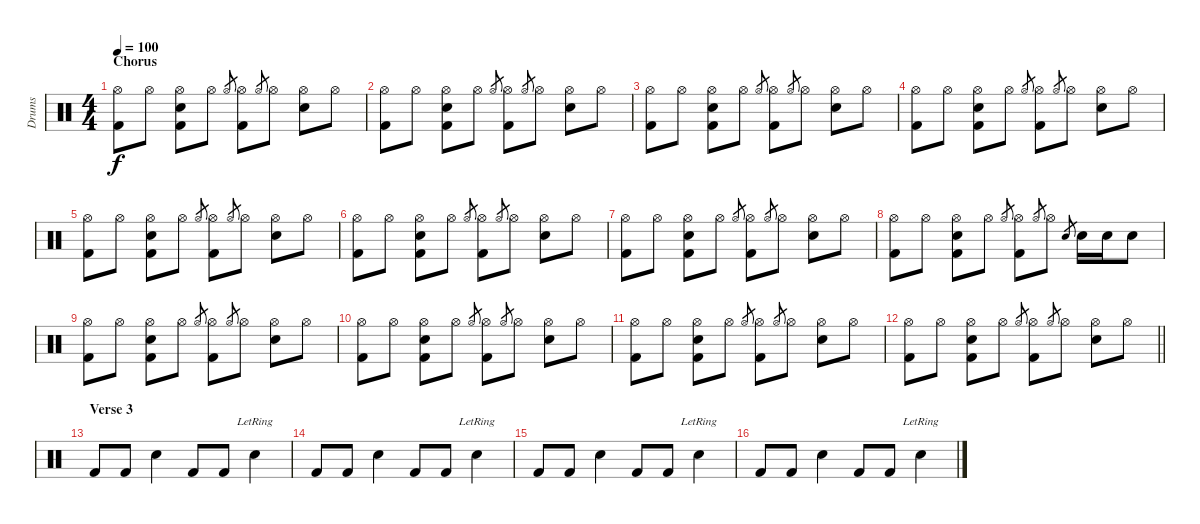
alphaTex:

\track ("Drums" "Drums") {instrument percussion}
\staff {score}
\articulation defaults
\ts (4 4)
\section ("" "Chorus")
\tempo 100
\clef neutral
\ks c
("Hi-Hat (open)" "Kick (hit) 2").8{dy f} "Hi-Hat (open)".8 ("Electric Snare (hit)" "Hi-Hat (open)" "Kick (hit) 2").8 "Hi-Hat (open)".8 "Hi-Hat (open)".8{gr} ("Hi-Hat (open)" "Kick (hit) 2").8 "Hi-Hat (open)".8{gr} "Hi-Hat (open)".8 ("Electric Snare (hit)" "Hi-Hat (open)").8 "Hi-Hat (open)".8 |
("Hi-Hat (open)" "Kick (hit) 2").8 "Hi-Hat (open)".8 ("Electric Snare (hit)" "Hi-Hat (open)" "Kick (hit) 2").8 "Hi-Hat (open)".8 "Hi-Hat (open)".8{gr} ("Hi-Hat (open)" "Kick (hit) 2").8 "Hi-Hat (open)".8{gr} "Hi-Hat (open)".8 ("Electric Snare (hit)" "Hi-Hat (open)").8 "Hi-Hat (open)".8 |
("Hi-Hat (open)" "Kick (hit) 2").8 "Hi-Hat (open)".8 ("Electric Snare (hit)" "Hi-Hat (open)" "Kick (hit) 2").8 "Hi-Hat (open)".8 "Hi-Hat (open)".8{gr} ("Hi-Hat (open)" "Kick (hit) 2").8 "Hi-Hat (open)".8{gr} "Hi-Hat (open)".8 ("Electric Snare (hit)" "Hi-Hat (open)").8 "Hi-Hat (open)".8 |
("Hi-Hat (open)" "Kick (hit) 2").8 "Hi-Hat (open)".8 ("Electric Snare (hit)" "Hi-Hat (open)" "Kick (hit) 2").8 "Hi-Hat (open)".8 "Hi-Hat (open)".8{gr} ("Hi-Hat (open)" "Kick (hit) 2").8 "Hi-Hat (open)".8{gr} "Hi-Hat (open)".8 ("Electric Snare (hit)" "Hi-Hat (open)").8 "Hi-Hat (open)".8 |
("Hi-Hat (open)" "Kick (hit) 2").8 "Hi-Hat (open)".8 ("Electric Snare (hit)" "Hi-Hat (open)" "Kick (hit) 2").8 "Hi-Hat (open)".8 "Hi-Hat (open)".8{gr} ("Hi-Hat (open)" "Kick (hit) 2").8 "Hi-Hat (open)".8{gr} "Hi-Hat (open)".8 ("Electric Snare (hit)" "Hi-Hat (open)").8 "Hi-Hat (open)".8 |
("Hi-Hat (open)" "Kick (hit) 2").8 "Hi-Hat (open)".8 ("Electric Snare (hit)" "Hi-Hat (open)" "Kick (hit) 2").8 "Hi-Hat (open)".8 "Hi-Hat (open)".8{gr} ("Hi-Hat (open)" "Kick (hit) 2").8 "Hi-Hat (open)".8{gr} "Hi-Hat (open)".8 ("Electric Snare (hit)" "Hi-Hat (open)").8 "Hi-Hat (open)".8 |
("Hi-Hat (open)" "Kick (hit) 2").8 "Hi-Hat (open)".8 ("Electric Snare (hit)" "Hi-Hat (open)" "Kick (hit) 2").8 "Hi-Hat (open)".8 "Hi-Hat (open)".8{gr} ("Hi-Hat (open)" "Kick (hit) 2").8 "Hi-Hat (open)".8{gr} "Hi-Hat (open)".8 ("Electric Snare (hit)" "Hi-Hat (open)").8 "Hi-Hat (open)".8 |
("Hi-Hat (open)" "Kick (hit) 2").8 "Hi-Hat (open)".8 ("Electric Snare (hit)" "Hi-Hat (open)" "Kick (hit) 2").8 "Hi-Hat (open)".8 "Hi-Hat (open)".8{gr} ("Hi-Hat (open)" "Kick (hit) 2").8 "Hi-Hat (open)".8{gr} "Hi-Hat (open)".8 "Electric Snare (hit)".8{gr} "Electric Snare (hit)".16 "Electric Snare (hit)".16 "Electric Snare (hit)".8 |
("Hi-Hat (open)" "Kick (hit) 2").8 "Hi-Hat (open)".8 ("Electric Snare (hit)" "Hi-Hat (open)" "Kick (hit) 2").8 "Hi-Hat (open)".8 "Hi-Hat (open)".8{gr} ("Hi-Hat (open)" "Kick (hit) 2").8 "Hi-Hat (open)".8{gr} "Hi-Hat (open)".8 ("Electric Snare (hit)" "Hi-Hat (open)").8 "Hi-Hat (open)".8 |
("Hi-Hat (open)" "Kick (hit) 2").8 "Hi-Hat (open)".8 ("Electric Snare (hit)" "Hi-Hat (open)" "Kick (hit) 2").8 "Hi-Hat (open)".8 "Hi-Hat (open)".8{gr} ("Hi-Hat (open)" "Kick (hit) 2").8 "Hi-Hat (open)".8{gr} "Hi-Hat (open)".8 ("Electric Snare (hit)" "Hi-Hat (open)").8 "Hi-Hat (open)".8 |
("Hi-Hat (open)" "Kick (hit) 2").8 "Hi-Hat (open)".8 ("Electric Snare (hit)" "Hi-Hat (open)" "Kick (hit) 2").8 "Hi-Hat (open)".8 "Hi-Hat (open)".8{gr} ("Hi-Hat (open)" "Kick (hit) 2").8 "Hi-Hat (open)".8{gr} "Hi-Hat (open)".8 ("Electric Snare (hit)" "Hi-Hat (open)").8 "Hi-Hat (open)".8 |
\barLineRight lightlight
("Hi-Hat (open)" "Kick (hit) 2").8 "Hi-Hat (open)".8 ("Electric Snare (hit)" "Hi-Hat (open)" "Kick (hit) 2").8 "Hi-Hat (open)".8 "Hi-Hat (open)".8{gr} ("Hi-Hat (open)" "Kick (hit) 2").8 "Hi-Hat (open)".8{gr} "Hi-Hat (open)".8 ("Electric Snare (hit)" "Hi-Hat (open)").8 "Hi-Hat (open)".8 |
\section ("" "Verse 3")
"Kick (hit) 2".8 "Kick (hit) 2".8 "Electric Snare (hit)".4 "Kick (hit) 2".8 "Kick (hit) 2".8 "Electric Snare (hit)"{lr}.4 |
"Kick (hit) 2".8 "Kick (hit) 2".8 "Electric Snare (hit)".4 "Kick (hit) 2".8 "Kick (hit) 2".8 "Electric Snare (hit)"{lr}.4 |
"Kick (hit) 2".8 "Kick (hit) 2".8 "Electric Snare (hit)".4 "Kick (hit) 2".8 "Kick (hit) 2".8 "Electric Snare (hit)"{lr}.4 |
"Kick (hit) 2".8 "Kick (hit) 2".8 "Electric Snare (hit)".4 "Kick (hit) 2".8 "Kick (hit) 2".8 "Electric Snare (hit)"{lr}.4
